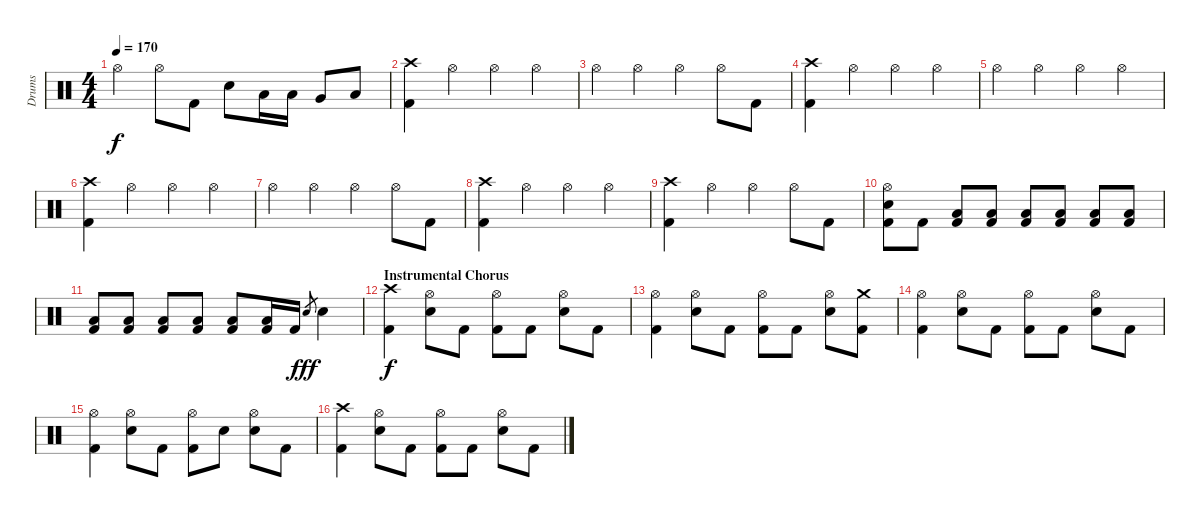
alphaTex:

\track ("Drums" "Drums") {instrument percussion}
\staff {score}
\articulation defaults
\ts (4 4)
\tempo 170
\clef neutral
\ks c "Hi-Hat (open)".4{dy f} "Hi-Hat (open)".8 "Kick (hit) 2".8 "Electric Snare (hit)".8 "Low Tom (hit)".16 "Low Tom (hit)".16 "Very Low Tom (hit)".8 "Low Floor Tom (hit)".8
|
("Crash high (hit)" "Kick (hit) 2").4 "Hi-Hat (open)".4 "Hi-Hat (open)".4 "Hi-Hat (open)".4 |
"Hi-Hat (open)".4 "Hi-Hat (open)".4 "Hi-Hat (open)".4 "Hi-Hat (open)".8 "Kick (hit) 2".8 |
("Crash high (hit)" "Kick (hit) 2").4 "Hi-Hat (open)".4 "Hi-Hat (open)".4 "Hi-Hat (open)".4 |
"Hi-Hat (open)".4 "Hi-Hat (open)".4 "Hi-Hat (open)".4 "Hi-Hat (open)".4 |
("Crash high (hit)" "Kick (hit) 2").4 "Hi-Hat (open)".4 "Hi-Hat (open)".4 "Hi-Hat (open)".4 |
"Hi-Hat (open)".4 "Hi-Hat (open)".4 "Hi-Hat (open)".4 "Hi-Hat (open)".8 "Kick (hit) 2".8 |
("Crash high (hit)" "Kick (hit) 2").4 "Hi-Hat (open)".4 "Hi-Hat (open)".4 "Hi-Hat (open)".4 |
("Crash high (hit)" "Kick (hit) 2").4 "Hi-Hat (open)".4 "Hi-Hat (open)".4 "Hi-Hat (open)".8 "Kick (hit) 2".8 |
("Hi-Hat (open)" "Electric Snare (hit)" "Kick (hit) 2").8 "Kick (hit) 2".8 ("Low Tom (hit)" "Kick (hit) 2").8 ("Low Tom (hit)" "Kick (hit) 2").8 ("Low Tom (hit)" "Kick (hit) 2").8 ("Low Tom (hit)" "Kick (hit) 2").8 ("Low Tom (hit)" "Kick (hit) 2").8 ("Low Tom (hit)" "Kick (hit) 2").8 |
("Low Tom (hit)" "Kick (hit) 2").8 ("Low Tom (hit)" "Kick (hit) 2").8 ("Low Tom (hit)" "Kick (hit) 2").8 ("Low Tom (hit)" "Kick (hit) 2").8 ("Low Tom (hit)" "Kick (hit) 2").8 ("Low Tom (hit)" "Kick (hit) 2").16 "Kick (hit) 2".16 "Electric Snare (hit)".8{gr dy fff} "Electric Snare (hit)".4 |
\section ("" "Instrumental Chorus")
("Crash high (hit)" "Kick (hit) 2").4{dy f} ("Hi-Hat (open)" "Electric Snare (hit)").8 "Kick (hit) 2".8 ("Hi-Hat (open)" "Kick (hit) 2").8 "Kick (hit) 2".8 ("Hi-Hat (open)" "Electric Snare (hit)").8 "Kick (hit) 2".8 |
("Hi-Hat (open)" "Kick (hit) 2").4 ("Hi-Hat (open)" "Electric Snare (hit)").8 "Kick (hit) 2".8 ("Hi-Hat (open)" "Kick (hit) 2").8 "Kick (hit) 2".8 ("Hi-Hat (open)" "Electric Snare (hit)").8 ("Crash medium (hit)" "Kick (hit) 2").8 |
("Hi-Hat (open)" "Kick (hit) 2").4 ("Hi-Hat (open)" "Electric Snare (hit)").8 "Kick (hit) 2".8 ("Hi-Hat (open)" "Kick (hit) 2").8 "Kick (hit) 2".8 ("Hi-Hat (open)" "Electric Snare (hit)").8 "Kick (hit) 2".8 |
("Hi-Hat (open)" "Kick (hit) 2").4 ("Hi-Hat (open)" "Electric Snare (hit)").8 "Kick (hit) 2".8 ("Hi-Hat (open)" "Kick (hit) 2").8 "Electric Snare (hit)".8 ("Hi-Hat (open)" "Electric Snare (hit)").8 "Kick (hit) 2".8 |
("Crash high (hit)" "Kick (hit) 2").4 ("Hi-Hat (open)" "Electric Snare (hit)").8 "Kick (hit) 2".8 ("Hi-Hat (open)" "Kick (hit) 2").8 "Kick (hit) 2".8 ("Hi-Hat (open)" "Electric Snare (hit)").8 "Kick (hit) 2".8
